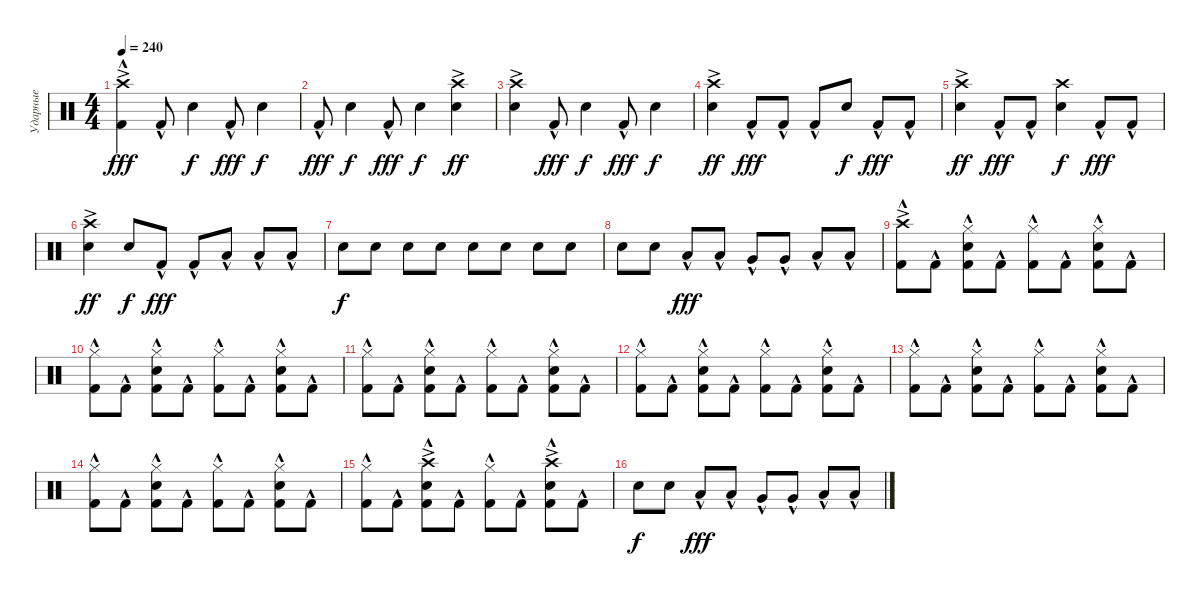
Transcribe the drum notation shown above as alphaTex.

\track ("Ударные" "Ударные") {instrument percussion}
\staff {score}
\articulation defaults
\ts (4 4)
\tempo 240
\clef neutral
\ks c
("Crash high (hit)"{ac} "Kick (hit) 2"{hac}).4{dy fff} "Kick (hit) 2"{hac}.8 "Snare (hit) 2".4{dy f} "Kick (hit) 2"{hac}.8{dy fff} "Snare (hit) 2".4{dy f} |
"Kick (hit) 2"{hac}.8{dy fff} "Snare (hit) 2".4{dy f} "Kick (hit) 2"{hac}.8{dy fff} "Snare (hit) 2".4{dy f} ("Crash high (hit)"{ac} "Snare (hit) 2").4{dy ff} |
("Crash high (hit)"{ac} "Snare (hit) 2").4 "Kick (hit) 2"{hac}.8{dy fff} "Snare (hit) 2".4{dy f} "Kick (hit) 2"{hac}.8{dy fff} "Snare (hit) 2".4{dy f} |
("Crash high (hit)"{ac} "Snare (hit) 2").4{dy ff} "Kick (hit) 2"{hac}.8{dy fff} "Kick (hit) 2"{hac}.8 "Kick (hit) 2"{hac}.8 "Snare (hit) 2".8{dy f} "Kick (hit) 2"{hac}.8{dy fff} "Kick (hit) 2"{hac}.8 |
("Crash high (hit)"{ac} "Snare (hit) 2").4{dy ff} "Kick (hit) 2"{hac}.8{dy fff} "Kick (hit) 2"{hac}.8 ("Crash high (hit)" "Snare (hit) 2").4{dy f} "Kick (hit) 2"{hac}.8{dy fff} "Kick (hit) 2"{hac}.8 |
("Crash high (hit)"{ac} "Snare (hit) 2").4{dy ff} "Snare (hit) 2".8{dy f} "Kick (hit) 2"{hac}.8{dy fff} "Kick (hit) 2"{hac}.8 "Low Tom (hit)"{hac}.8 "Low Tom (hit)"{hac}.8 "Low Tom (hit)"{hac}.8 |
"Snare (hit) 2".8{dy f} "Snare (hit) 2".8 "Snare (hit) 2".8 "Snare (hit) 2".8 "Snare (hit) 2".8 "Snare (hit) 2".8 "Snare (hit) 2".8 "Snare (hit) 2".8 |
"Snare (hit) 2".8 "Snare (hit) 2".8 "Low Tom (hit)"{hac}.8{dy fff} "Low Tom (hit)"{hac}.8 "Very Low Tom (hit)"{hac}.8 "Very Low Tom (hit)"{hac}.8 "Low Floor Tom (hit)"{hac}.8 "Low Floor Tom (hit)"{hac}.8 |
("Crash high (hit)"{ac} "Kick (hit) 2"{hac}).8 "Kick (hit) 2"{hac}.8 ("Hi-Hat (closed)" "Snare (hit) 2" "Kick (hit) 2"{hac}).8 "Kick (hit) 2"{hac}.8 ("Hi-Hat (closed)" "Kick (hit) 2"{hac}).8 "Kick (hit) 2"{hac}.8 ("Hi-Hat (closed)" "Snare (hit) 2" "Kick (hit) 2"{hac}).8 "Kick (hit) 2"{hac}.8 |
("Hi-Hat (closed)" "Kick (hit) 2"{hac}).8 "Kick (hit) 2"{hac}.8 ("Hi-Hat (closed)" "Snare (hit) 2" "Kick (hit) 2"{hac}).8 "Kick (hit) 2"{hac}.8 ("Hi-Hat (closed)" "Kick (hit) 2"{hac}).8 "Kick (hit) 2"{hac}.8 ("Hi-Hat (closed)" "Snare (hit) 2" "Kick (hit) 2"{hac}).8 "Kick (hit) 2"{hac}.8 |
("Hi-Hat (closed)" "Kick (hit) 2"{hac}).8 "Kick (hit) 2"{hac}.8 ("Hi-Hat (closed)" "Snare (hit) 2" "Kick (hit) 2"{hac}).8 "Kick (hit) 2"{hac}.8 ("Hi-Hat (closed)" "Kick (hit) 2"{hac}).8 "Kick (hit) 2"{hac}.8 ("Hi-Hat (closed)" "Snare (hit) 2" "Kick (hit) 2"{hac}).8 "Kick (hit) 2"{hac}.8 |
("Hi-Hat (closed)" "Kick (hit) 2"{hac}).8 "Kick (hit) 2"{hac}.8 ("Hi-Hat (closed)" "Snare (hit) 2" "Kick (hit) 2"{hac}).8 "Kick (hit) 2"{hac}.8 ("Hi-Hat (closed)" "Kick (hit) 2"{hac}).8 "Kick (hit) 2"{hac}.8 ("Hi-Hat (closed)" "Snare (hit) 2" "Kick (hit) 2"{hac}).8 "Kick (hit) 2"{hac}.8 |
("Hi-Hat (closed)" "Kick (hit) 2"{hac}).8 "Kick (hit) 2"{hac}.8 ("Hi-Hat (closed)" "Snare (hit) 2" "Kick (hit) 2"{hac}).8 "Kick (hit) 2"{hac}.8 ("Hi-Hat (closed)" "Kick (hit) 2"{hac}).8 "Kick (hit) 2"{hac}.8 ("Hi-Hat (closed)" "Snare (hit) 2" "Kick (hit) 2"{hac}).8 "Kick (hit) 2"{hac}.8 |
("Hi-Hat (closed)" "Kick (hit) 2"{hac}).8 "Kick (hit) 2"{hac}.8 ("Hi-Hat (closed)" "Snare (hit) 2" "Kick (hit) 2"{hac}).8 "Kick (hit) 2"{hac}.8 ("Hi-Hat (closed)" "Kick (hit) 2"{hac}).8 "Kick (hit) 2"{hac}.8 ("Hi-Hat (closed)" "Snare (hit) 2" "Kick (hit) 2"{hac}).8 "Kick (hit) 2"{hac}.8 |
("Hi-Hat (closed)" "Kick (hit) 2"{hac}).8 "Kick (hit) 2"{hac}.8 ("Crash high (hit)"{ac} "Snare (hit) 2" "Kick (hit) 2"{hac}).8 "Kick (hit) 2"{hac}.8 ("Hi-Hat (closed)" "Kick (hit) 2"{hac}).8 "Kick (hit) 2"{hac}.8 ("Crash high (hit)"{ac} "Snare (hit) 2" "Kick (hit) 2"{hac}).8 "Kick (hit) 2"{hac}.8 |
"Snare (hit) 2".8{dy f} "Snare (hit) 2".8 "Low Tom (hit)"{hac}.8{dy fff} "Low Tom (hit)"{hac}.8 "Very Low Tom (hit)"{hac}.8 "Very Low Tom (hit)"{hac}.8 "Low Floor Tom (hit)"{hac}.8 "Low Floor Tom (hit)"{hac}.8
